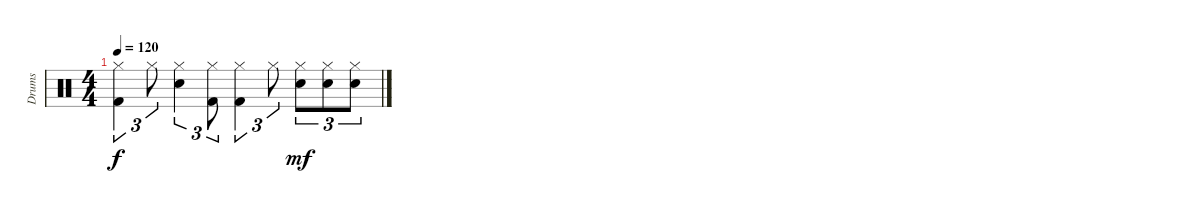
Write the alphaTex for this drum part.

\track ("Drums" "Drums") {instrument percussion}
\staff {score}
\articulation defaults
\ts (4 4)
\tempo 120
\clef neutral
\ks c
("Hi-Hat (closed)" "Kick (hit) 2").4{tu (3 2) dy f} "Hi-Hat (closed)".8{tu (3 2)} ("Hi-Hat (closed)" "Electric Snare (hit)").4{tu (3 2)} ("Hi-Hat (closed)" "Kick (hit) 2").8{tu (3 2)} ("Hi-Hat (closed)" "Kick (hit) 2").4{tu (3 2)} "Hi-Hat (closed)".8{tu (3 2)} ("Hi-Hat (closed)" "Electric Snare (hit)").8{tu (3 2) dy mf} ("Hi-Hat (closed)" "Electric Snare (hit)").8{tu (3 2)} ("Hi-Hat (closed)" "Electric Snare (hit)").8{tu (3 2)}
